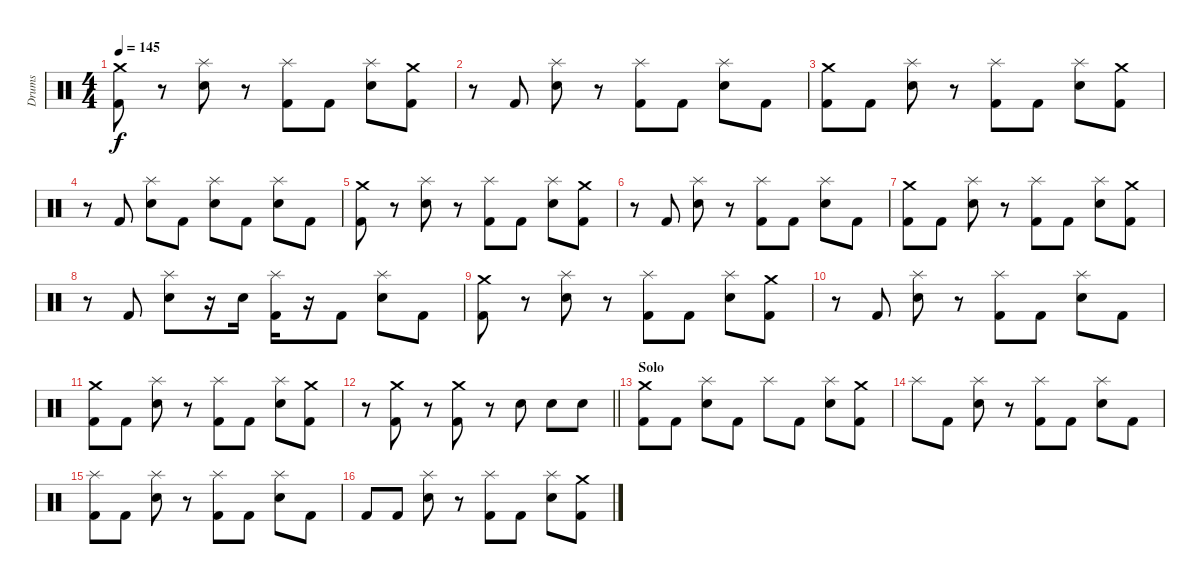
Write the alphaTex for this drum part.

\track ("Drums" "Drums") {instrument percussion}
\staff {score}
\articulation defaults
\ts (4 4)
\tempo 145
\clef neutral
\ks c
("Crash medium (hit)" "Kick (hit) 2").8{dy f} r.8 ("Splash (hit)" "Snare (hit) 2").8 r.8 ("Splash (hit)" "Kick (hit) 2").8 "Kick (hit) 2".8 ("Splash (hit)" "Snare (hit) 2").8 ("Kick (hit) 2" "Crash medium (hit)").8 |
r.8 "Kick (hit) 2".8 ("Splash (hit)" "Snare (hit) 2").8 r.8 ("Splash (hit)" "Kick (hit) 2").8 "Kick (hit) 2".8 ("Splash (hit)" "Snare (hit) 2").8 "Kick (hit) 2".8 |
("Crash medium (hit)" "Kick (hit) 2").8 "Kick (hit) 2".8 ("Snare (hit) 2" "Splash (hit)").8 r.8 ("Splash (hit)" "Kick (hit) 2").8 "Kick (hit) 2".8 ("Splash (hit)" "Snare (hit) 2").8 ("Kick (hit) 2" "Crash medium (hit)").8 |
r.8 "Kick (hit) 2".8 ("Snare (hit) 2" "Splash (hit)").8 "Kick (hit) 2".8 ("Splash (hit)" "Snare (hit) 2").8 "Kick (hit) 2".8 ("Splash (hit)" "Snare (hit) 2").8 "Kick (hit) 2".8 |
("Crash medium (hit)" "Kick (hit) 2").8 r.8 ("Splash (hit)" "Snare (hit) 2").8 r.8 ("Splash (hit)" "Kick (hit) 2").8 "Kick (hit) 2".8 ("Splash (hit)" "Snare (hit) 2").8 ("Kick (hit) 2" "Crash medium (hit)").8 |
r.8 "Kick (hit) 2".8 ("Splash (hit)" "Snare (hit) 2").8 r.8 ("Splash (hit)" "Kick (hit) 2").8 "Kick (hit) 2".8 ("Splash (hit)" "Snare (hit) 2").8 "Kick (hit) 2".8 |
("Crash medium (hit)" "Kick (hit) 2").8 "Kick (hit) 2".8 ("Snare (hit) 2" "Splash (hit)").8 r.8 ("Splash (hit)" "Kick (hit) 2").8 "Kick (hit) 2".8 ("Splash (hit)" "Snare (hit) 2").8 ("Kick (hit) 2" "Crash medium (hit)").8 |
r.8 "Kick (hit) 2".8 ("Splash (hit)" "Snare (hit) 2").8 r.16 "Snare (hit) 2".16 ("Splash (hit)" "Kick (hit) 2").16 r.16 "Kick (hit) 2".8 ("Splash (hit)" "Snare (hit) 2").8 "Kick (hit) 2".8 |
("Crash medium (hit)" "Kick (hit) 2").8 r.8 ("Splash (hit)" "Snare (hit) 2").8 r.8 ("Splash (hit)" "Kick (hit) 2").8 "Kick (hit) 2".8 ("Splash (hit)" "Snare (hit) 2").8 ("Kick (hit) 2" "Crash medium (hit)").8 |
r.8 "Kick (hit) 2".8 ("Splash (hit)" "Snare (hit) 2").8 r.8 ("Splash (hit)" "Kick (hit) 2").8 "Kick (hit) 2".8 ("Splash (hit)" "Snare (hit) 2").8 "Kick (hit) 2".8 |
("Crash medium (hit)" "Kick (hit) 2").8 "Kick (hit) 2".8 ("Snare (hit) 2" "Splash (hit)").8 r.8 ("Splash (hit)" "Kick (hit) 2").8 "Kick (hit) 2".8 ("Splash (hit)" "Snare (hit) 2").8 ("Kick (hit) 2" "Crash medium (hit)").8 |
\barLineRight lightlight
r.8 ("Crash medium (hit)" "Kick (hit) 2").8 r.8 ("Kick (hit) 2" "Crash medium (hit)").8 r.8 "Snare (hit) 2".8 "Snare (hit) 2".8 "Snare (hit) 2".8 |
\section ("" "Solo")
("Crash medium (hit)" "Kick (hit) 2").8 "Kick (hit) 2".8 ("Snare (hit) 2" "Splash (hit)").8 "Kick (hit) 2".8 "Splash (hit)".8 "Kick (hit) 2".8 ("Splash (hit)" "Snare (hit) 2").8 ("Kick (hit) 2" "Crash medium (hit)").8 |
"Splash (hit)".8 "Kick (hit) 2".8 ("Snare (hit) 2" "Splash (hit)").8 r.8 ("Splash (hit)" "Kick (hit) 2").8 "Kick (hit) 2".8 ("Splash (hit)" "Snare (hit) 2").8 "Kick (hit) 2".8 |
("Splash (hit)" "Kick (hit) 2").8 "Kick (hit) 2".8 ("Snare (hit) 2" "Splash (hit)").8 r.8 ("Splash (hit)" "Kick (hit) 2").8 "Kick (hit) 2".8 ("Splash (hit)" "Snare (hit) 2").8 "Kick (hit) 2".8 |
"Kick (hit) 2".8 "Kick (hit) 2".8 ("Snare (hit) 2" "Splash (hit)").8 r.8 ("Splash (hit)" "Kick (hit) 2").8 "Kick (hit) 2".8 ("Splash (hit)" "Snare (hit) 2").8 ("Kick (hit) 2" "Crash medium (hit)").8
